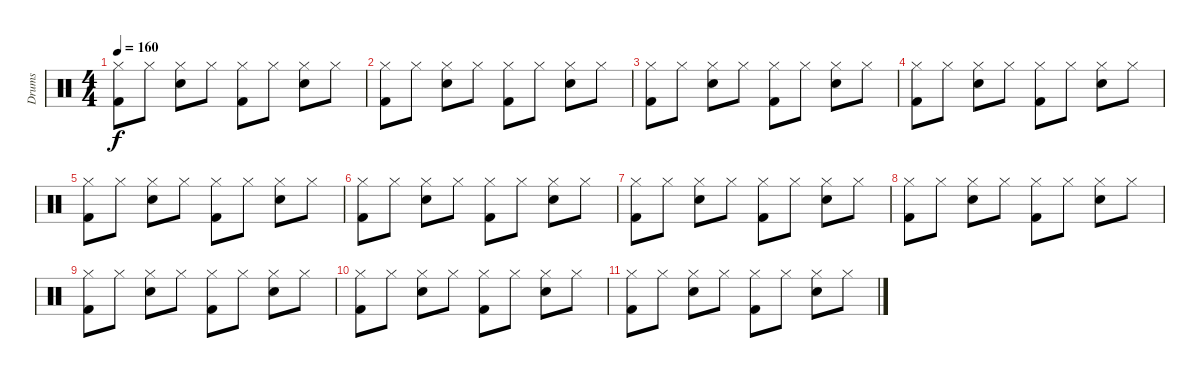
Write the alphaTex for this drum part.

\track ("Drums" "Drums") {instrument percussion}
\staff {score}
\articulation defaults
\ts (4 4)
\tempo 160
\clef neutral
\ks c
("Hi-Hat (closed)" "Kick (hit) 2").8{dy f} "Hi-Hat (closed)".8 ("Hi-Hat (closed)" "Electric Snare (hit)").8 "Hi-Hat (closed)".8 ("Hi-Hat (closed)" "Kick (hit) 2").8 "Hi-Hat (closed)".8 ("Hi-Hat (closed)" "Electric Snare (hit)").8 "Hi-Hat (closed)".8 |
("Hi-Hat (closed)" "Kick (hit) 2").8 "Hi-Hat (closed)".8 ("Hi-Hat (closed)" "Electric Snare (hit)").8 "Hi-Hat (closed)".8 ("Hi-Hat (closed)" "Kick (hit) 2").8 "Hi-Hat (closed)".8 ("Hi-Hat (closed)" "Electric Snare (hit)").8 "Hi-Hat (closed)".8 |
("Hi-Hat (closed)" "Kick (hit) 2").8 "Hi-Hat (closed)".8 ("Hi-Hat (closed)" "Electric Snare (hit)").8 "Hi-Hat (closed)".8 ("Hi-Hat (closed)" "Kick (hit) 2").8 "Hi-Hat (closed)".8 ("Hi-Hat (closed)" "Electric Snare (hit)").8 "Hi-Hat (closed)".8 |
("Hi-Hat (closed)" "Kick (hit) 2").8 "Hi-Hat (closed)".8 ("Hi-Hat (closed)" "Electric Snare (hit)").8 "Hi-Hat (closed)".8 ("Hi-Hat (closed)" "Kick (hit) 2").8 "Hi-Hat (closed)".8 ("Hi-Hat (closed)" "Electric Snare (hit)").8 "Hi-Hat (closed)".8 |
("Hi-Hat (closed)" "Kick (hit) 2").8 "Hi-Hat (closed)".8 ("Hi-Hat (closed)" "Electric Snare (hit)").8 "Hi-Hat (closed)".8 ("Hi-Hat (closed)" "Kick (hit) 2").8 "Hi-Hat (closed)".8 ("Hi-Hat (closed)" "Electric Snare (hit)").8 "Hi-Hat (closed)".8 |
("Hi-Hat (closed)" "Kick (hit) 2").8 "Hi-Hat (closed)".8 ("Hi-Hat (closed)" "Electric Snare (hit)").8 "Hi-Hat (closed)".8 ("Hi-Hat (closed)" "Kick (hit) 2").8 "Hi-Hat (closed)".8 ("Hi-Hat (closed)" "Electric Snare (hit)").8 "Hi-Hat (closed)".8 |
("Hi-Hat (closed)" "Kick (hit) 2").8 "Hi-Hat (closed)".8 ("Hi-Hat (closed)" "Electric Snare (hit)").8 "Hi-Hat (closed)".8 ("Hi-Hat (closed)" "Kick (hit) 2").8 "Hi-Hat (closed)".8 ("Hi-Hat (closed)" "Electric Snare (hit)").8 "Hi-Hat (closed)".8 |
("Hi-Hat (closed)" "Kick (hit) 2").8 "Hi-Hat (closed)".8 ("Hi-Hat (closed)" "Electric Snare (hit)").8 "Hi-Hat (closed)".8 ("Hi-Hat (closed)" "Kick (hit) 2").8 "Hi-Hat (closed)".8 ("Hi-Hat (closed)" "Electric Snare (hit)").8 "Hi-Hat (closed)".8 |
("Hi-Hat (closed)" "Kick (hit) 2").8 "Hi-Hat (closed)".8 ("Hi-Hat (closed)" "Electric Snare (hit)").8 "Hi-Hat (closed)".8 ("Hi-Hat (closed)" "Kick (hit) 2").8 "Hi-Hat (closed)".8 ("Hi-Hat (closed)" "Electric Snare (hit)").8 "Hi-Hat (closed)".8 |
("Hi-Hat (closed)" "Kick (hit) 2").8 "Hi-Hat (closed)".8 ("Hi-Hat (closed)" "Electric Snare (hit)").8 "Hi-Hat (closed)".8 ("Hi-Hat (closed)" "Kick (hit) 2").8 "Hi-Hat (closed)".8 ("Hi-Hat (closed)" "Electric Snare (hit)").8 "Hi-Hat (closed)".8 |
("Hi-Hat (closed)" "Kick (hit) 2").8 "Hi-Hat (closed)".8 ("Hi-Hat (closed)" "Electric Snare (hit)").8 "Hi-Hat (closed)".8 ("Hi-Hat (closed)" "Kick (hit) 2").8 "Hi-Hat (closed)".8 ("Hi-Hat (closed)" "Electric Snare (hit)").8 "Hi-Hat (closed)".8
